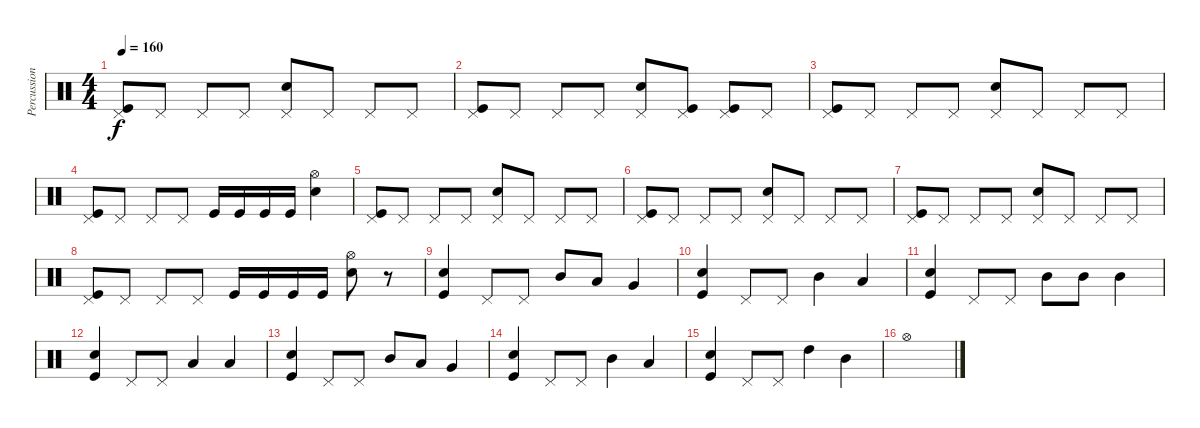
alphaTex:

\track ("Percussion" "Percussion") {instrument percussion}
\staff {score}
\articulation defaults
\ts (4 4)
\tempo 160
\clef neutral
\ks c
("Pedal Hi-Hat (hit)" "Kick (hit)").8{dy f} "Pedal Hi-Hat (hit)".8 "Pedal Hi-Hat (hit)".8 "Pedal Hi-Hat (hit)".8 ("Pedal Hi-Hat (hit)" "Electric Snare (hit)").8 "Pedal Hi-Hat (hit)".8 "Pedal Hi-Hat (hit)".8 "Pedal Hi-Hat (hit)".8 |
("Pedal Hi-Hat (hit)" "Kick (hit)").8 "Pedal Hi-Hat (hit)".8 "Pedal Hi-Hat (hit)".8 "Pedal Hi-Hat (hit)".8 ("Pedal Hi-Hat (hit)" "Electric Snare (hit)").8 ("Pedal Hi-Hat (hit)" "Kick (hit)").8 ("Pedal Hi-Hat (hit)" "Kick (hit)").8 "Pedal Hi-Hat (hit)".8 |
("Pedal Hi-Hat (hit)" "Kick (hit)").8 "Pedal Hi-Hat (hit)".8 "Pedal Hi-Hat (hit)".8 "Pedal Hi-Hat (hit)".8 ("Pedal Hi-Hat (hit)" "Electric Snare (hit)").8 "Pedal Hi-Hat (hit)".8 "Pedal Hi-Hat (hit)".8 "Pedal Hi-Hat (hit)".8 |
("Pedal Hi-Hat (hit)" "Kick (hit)").8 "Pedal Hi-Hat (hit)".8 "Pedal Hi-Hat (hit)".8 "Pedal Hi-Hat (hit)".8 "Kick (hit)".16 "Kick (hit)".16 "Kick (hit)".16 "Kick (hit)".16 ("Hi-Hat (open)" "Electric Snare (hit)").4 |
("Pedal Hi-Hat (hit)" "Kick (hit)").8 "Pedal Hi-Hat (hit)".8 "Pedal Hi-Hat (hit)".8 "Pedal Hi-Hat (hit)".8 ("Pedal Hi-Hat (hit)" "Electric Snare (hit)").8 "Pedal Hi-Hat (hit)".8 "Pedal Hi-Hat (hit)".8 "Pedal Hi-Hat (hit)".8 |
("Pedal Hi-Hat (hit)" "Kick (hit)").8 "Pedal Hi-Hat (hit)".8 "Pedal Hi-Hat (hit)".8 "Pedal Hi-Hat (hit)".8 ("Pedal Hi-Hat (hit)" "Electric Snare (hit)").8 "Pedal Hi-Hat (hit)".8 "Pedal Hi-Hat (hit)".8 "Pedal Hi-Hat (hit)".8 |
("Pedal Hi-Hat (hit)" "Kick (hit)").8 "Pedal Hi-Hat (hit)".8 "Pedal Hi-Hat (hit)".8 "Pedal Hi-Hat (hit)".8 ("Pedal Hi-Hat (hit)" "Electric Snare (hit)").8 "Pedal Hi-Hat (hit)".8 "Pedal Hi-Hat (hit)".8 "Pedal Hi-Hat (hit)".8 |
("Pedal Hi-Hat (hit)" "Kick (hit)").8 "Pedal Hi-Hat (hit)".8 "Pedal Hi-Hat (hit)".8 "Pedal Hi-Hat (hit)".8 "Kick (hit)".16 "Kick (hit)".16 "Kick (hit)".16 "Kick (hit)".16 ("Hi-Hat (open)" "Electric Snare (hit)").8 r.8 |
("Electric Snare (hit)" "Kick (hit)").4 "Pedal Hi-Hat (hit)".8 "Pedal Hi-Hat (hit)".8 "Mid Tom (hit)".8 "Low Tom (hit)".8 "Very Low Tom (hit)".4 |
("Electric Snare (hit)" "Kick (hit)").4 "Pedal Hi-Hat (hit)".8 "Pedal Hi-Hat (hit)".8 "Mid Tom (hit)".4 "Low Tom (hit)".4 |
("Electric Snare (hit)" "Kick (hit)").4 "Pedal Hi-Hat (hit)".8 "Pedal Hi-Hat (hit)".8 "Mid Tom (hit)".8 "Mid Tom (hit)".8 "Mid Tom (hit)".4 |
("Electric Snare (hit)" "Kick (hit)").4 "Pedal Hi-Hat (hit)".8 "Pedal Hi-Hat (hit)".8 "Low Tom (hit)".4 "Low Tom (hit)".4 |
("Electric Snare (hit)" "Kick (hit)").4 "Pedal Hi-Hat (hit)".8 "Pedal Hi-Hat (hit)".8 "Mid Tom (hit)".8 "Low Tom (hit)".8 "Very Low Tom (hit)".4 |
("Electric Snare (hit)" "Kick (hit)").4 "Pedal Hi-Hat (hit)".8 "Pedal Hi-Hat (hit)".8 "Mid Tom (hit)".4 "Low Tom (hit)".4 |
("Electric Snare (hit)" "Kick (hit)").4 "Pedal Hi-Hat (hit)".8 "Pedal Hi-Hat (hit)".8 "High Tom (hit)".4 "Mid Tom (hit)".4 |
"Hi-Hat (open)".1
